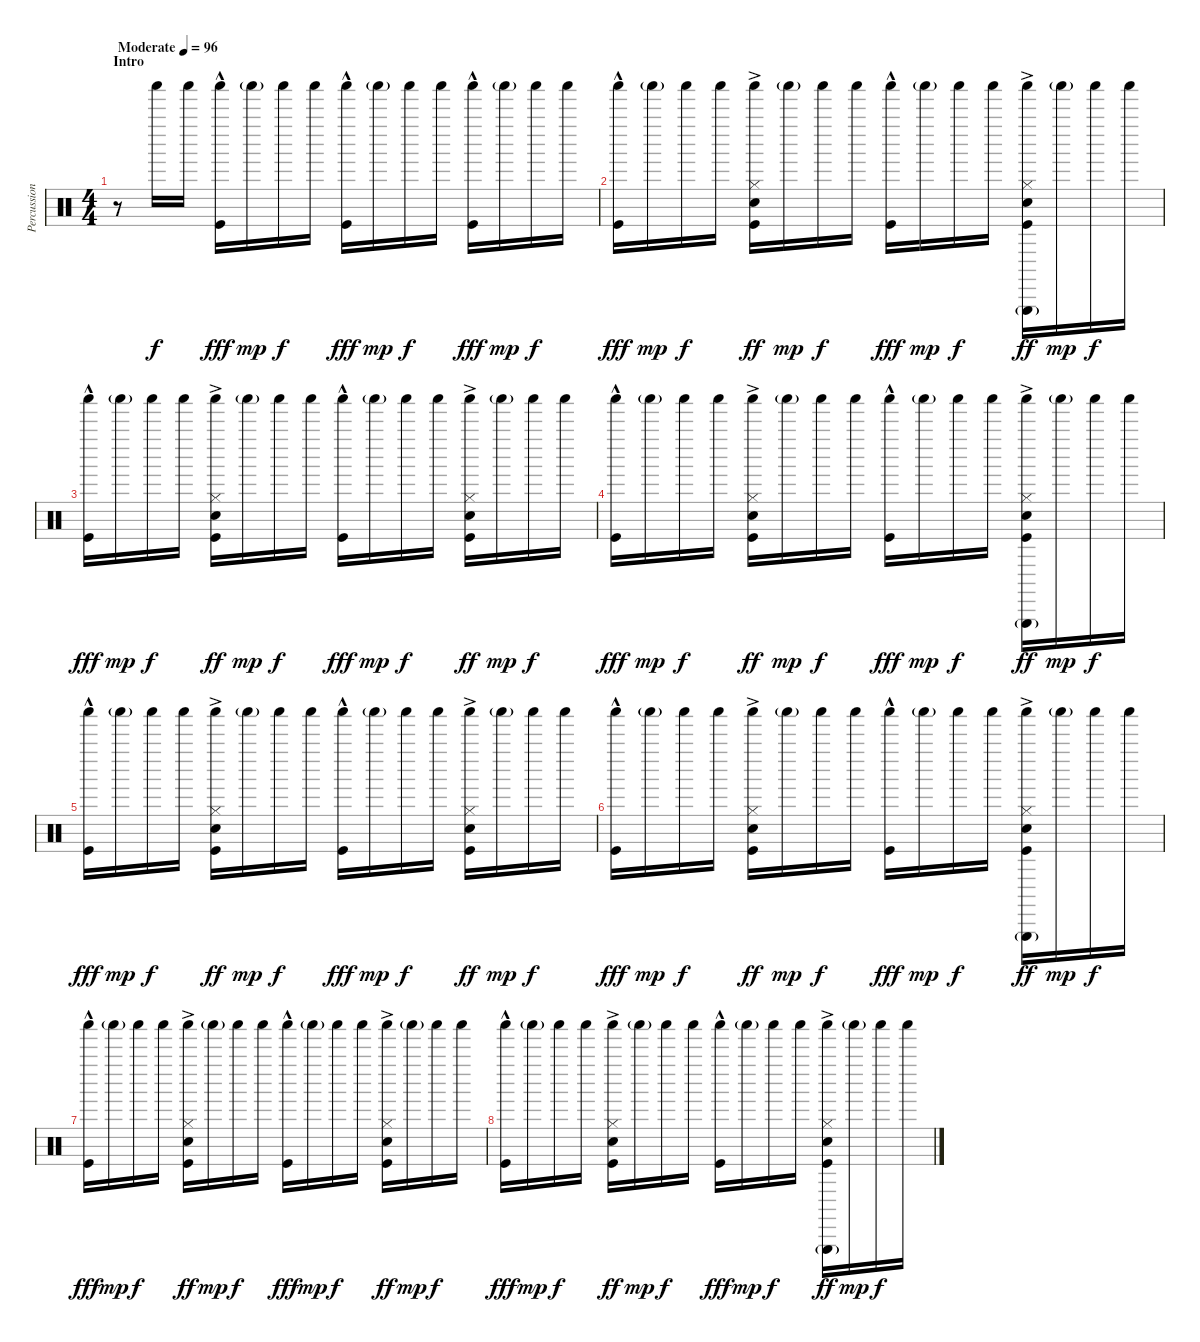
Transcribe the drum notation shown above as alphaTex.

\track ("Percussion" "Percussion") {instrument percussion}
\staff {score}
\articulation defaults
\ts (4 4)
\section ("" "Intro")
\tempo (96 "Moderate")
\clef neutral
\ks c
r.8{dy f} "Shaker (hit)".16 "Shaker (hit)".16 ("Shaker (hit)" "Kick (hit)"{hac}).16{dy fff} "Shaker (hit)"{g}.16{dy mp} "Shaker (hit)".16{dy f} "Shaker (hit)".16 ("Shaker (hit)" "Kick (hit)"{hac}).16{dy fff} "Shaker (hit)"{g}.16{dy mp} "Shaker (hit)".16{dy f} "Shaker (hit)".16 ("Shaker (hit)" "Kick (hit)"{hac}).16{dy fff} "Shaker (hit)"{g}.16{dy mp} "Shaker (hit)".16{dy f} "Shaker (hit)".16 |
("Shaker (hit)" "Kick (hit)"{hac}).16{dy fff} "Shaker (hit)"{g}.16{dy mp} "Shaker (hit)".16{dy f} "Shaker (hit)".16 ("Shaker (hit)" "Hi-Hat (closed)" "Snare (hit) 2"{ac} "Kick (hit)"{ac}).16{dy ff} "Shaker (hit)"{g}.16{dy mp} "Shaker (hit)".16{dy f} "Shaker (hit)".16 ("Shaker (hit)" "Kick (hit)"{hac}).16{dy fff} "Shaker (hit)"{g}.16{dy mp} "Shaker (hit)".16{dy f} "Shaker (hit)".16 ("Triangle (hit)"{g} "Shaker (hit)" "Hi-Hat (closed)" "Snare (hit) 2"{ac} "Kick (hit)"{ac}).16{dy ff} "Shaker (hit)"{g}.16{dy mp} "Shaker (hit)".16{dy f} "Shaker (hit)".16 |
("Shaker (hit)" "Kick (hit)"{hac}).16{dy fff} "Shaker (hit)"{g}.16{dy mp} "Shaker (hit)".16{dy f} "Shaker (hit)".16 ("Shaker (hit)" "Hi-Hat (closed)" "Snare (hit) 2"{ac} "Kick (hit)"{ac}).16{dy ff} "Shaker (hit)"{g}.16{dy mp} "Shaker (hit)".16{dy f} "Shaker (hit)".16 ("Shaker (hit)" "Kick (hit)"{hac}).16{dy fff} "Shaker (hit)"{g}.16{dy mp} "Shaker (hit)".16{dy f} "Shaker (hit)".16 ("Shaker (hit)" "Hi-Hat (closed)" "Snare (hit) 2"{ac} "Kick (hit)"{ac}).16{dy ff} "Shaker (hit)"{g}.16{dy mp} "Shaker (hit)".16{dy f} "Shaker (hit)".16 |
("Shaker (hit)" "Kick (hit)"{hac}).16{dy fff} "Shaker (hit)"{g}.16{dy mp} "Shaker (hit)".16{dy f} "Shaker (hit)".16 ("Shaker (hit)" "Hi-Hat (closed)" "Snare (hit) 2"{ac} "Kick (hit)"{ac}).16{dy ff} "Shaker (hit)"{g}.16{dy mp} "Shaker (hit)".16{dy f} "Shaker (hit)".16 ("Shaker (hit)" "Kick (hit)"{hac}).16{dy fff} "Shaker (hit)"{g}.16{dy mp} "Shaker (hit)".16{dy f} "Shaker (hit)".16 ("Triangle (hit)"{g} "Shaker (hit)" "Hi-Hat (closed)" "Snare (hit) 2"{ac} "Kick (hit)"{ac}).16{dy ff} "Shaker (hit)"{g}.16{dy mp} "Shaker (hit)".16{dy f} "Shaker (hit)".16 |
("Shaker (hit)" "Kick (hit)"{hac}).16{dy fff} "Shaker (hit)"{g}.16{dy mp} "Shaker (hit)".16{dy f} "Shaker (hit)".16 ("Shaker (hit)" "Hi-Hat (closed)" "Snare (hit) 2"{ac} "Kick (hit)"{ac}).16{dy ff} "Shaker (hit)"{g}.16{dy mp} "Shaker (hit)".16{dy f} "Shaker (hit)".16 ("Shaker (hit)" "Kick (hit)"{hac}).16{dy fff} "Shaker (hit)"{g}.16{dy mp} "Shaker (hit)".16{dy f} "Shaker (hit)".16 ("Shaker (hit)" "Hi-Hat (closed)" "Snare (hit) 2"{ac} "Kick (hit)"{ac}).16{dy ff} "Shaker (hit)"{g}.16{dy mp} "Shaker (hit)".16{dy f} "Shaker (hit)".16 |
("Shaker (hit)" "Kick (hit)"{hac}).16{dy fff} "Shaker (hit)"{g}.16{dy mp} "Shaker (hit)".16{dy f} "Shaker (hit)".16 ("Shaker (hit)" "Hi-Hat (closed)" "Snare (hit) 2"{ac} "Kick (hit)"{ac}).16{dy ff} "Shaker (hit)"{g}.16{dy mp} "Shaker (hit)".16{dy f} "Shaker (hit)".16 ("Shaker (hit)" "Kick (hit)"{hac}).16{dy fff} "Shaker (hit)"{g}.16{dy mp} "Shaker (hit)".16{dy f} "Shaker (hit)".16 ("Triangle (hit)"{g} "Shaker (hit)" "Hi-Hat (closed)" "Snare (hit) 2"{ac} "Kick (hit)"{ac}).16{dy ff} "Shaker (hit)"{g}.16{dy mp} "Shaker (hit)".16{dy f} "Shaker (hit)".16 |
("Shaker (hit)" "Kick (hit)"{hac}).16{dy fff} "Shaker (hit)"{g}.16{dy mp} "Shaker (hit)".16{dy f} "Shaker (hit)".16 ("Shaker (hit)" "Hi-Hat (closed)" "Snare (hit) 2"{ac} "Kick (hit)"{ac}).16{dy ff} "Shaker (hit)"{g}.16{dy mp} "Shaker (hit)".16{dy f} "Shaker (hit)".16 ("Shaker (hit)" "Kick (hit)"{hac}).16{dy fff} "Shaker (hit)"{g}.16{dy mp} "Shaker (hit)".16{dy f} "Shaker (hit)".16 ("Shaker (hit)" "Hi-Hat (closed)" "Snare (hit) 2"{ac} "Kick (hit)"{ac}).16{dy ff} "Shaker (hit)"{g}.16{dy mp} "Shaker (hit)".16{dy f} "Shaker (hit)".16 |
("Shaker (hit)" "Kick (hit)"{hac}).16{dy fff} "Shaker (hit)"{g}.16{dy mp} "Shaker (hit)".16{dy f} "Shaker (hit)".16 ("Shaker (hit)" "Hi-Hat (closed)" "Snare (hit) 2"{ac} "Kick (hit)"{ac}).16{dy ff} "Shaker (hit)"{g}.16{dy mp} "Shaker (hit)".16{dy f} "Shaker (hit)".16 ("Shaker (hit)" "Kick (hit)"{hac}).16{dy fff} "Shaker (hit)"{g}.16{dy mp} "Shaker (hit)".16{dy f} "Shaker (hit)".16 ("Triangle (hit)"{g} "Shaker (hit)" "Hi-Hat (closed)" "Snare (hit) 2"{ac} "Kick (hit)"{ac}).16{dy ff} "Shaker (hit)"{g}.16{dy mp} "Shaker (hit)".16{dy f} "Shaker (hit)".16
